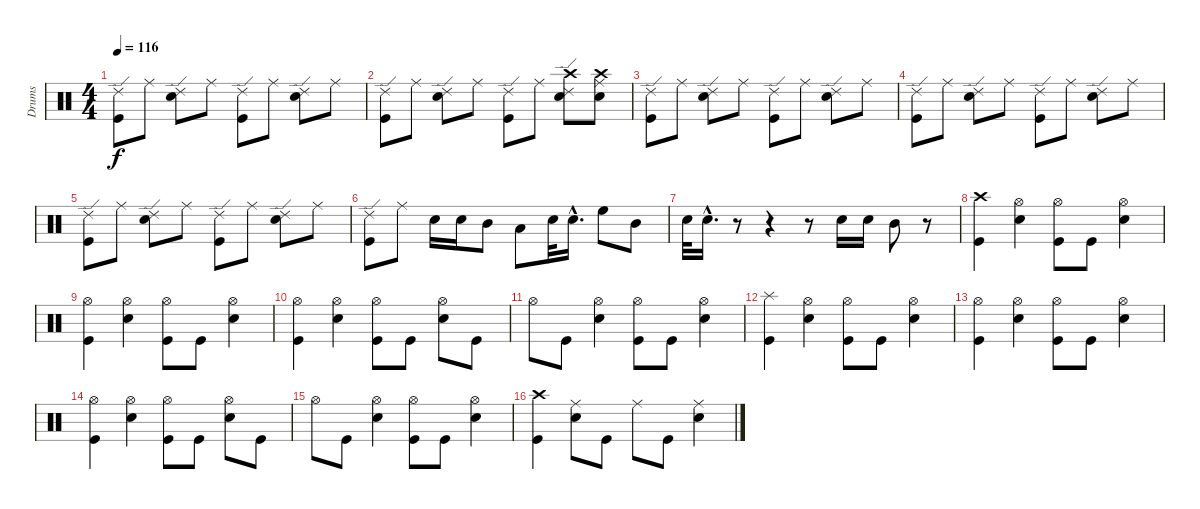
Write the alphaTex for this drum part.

\track ("Drums" "Drums") {instrument percussion}
\staff {score}
\articulation defaults
\ts (4 4)
\tempo 116
\clef neutral
\ks c
("Ride (edge) 2" "Kick (hit)").8{dy f} "Ride (middle)".8 ("Ride (edge) 2" "Electric Snare (hit)").8 "Ride (middle)".8 ("Ride (edge) 2" "Kick (hit)").8 "Ride (middle)".8 ("Ride (edge) 2" "Electric Snare (hit)").8 "Ride (middle)".8 |
("Ride (edge) 2" "Kick (hit)").8 "Ride (middle)".8 ("Ride (edge) 2" "Electric Snare (hit)").8 "Ride (middle)".8 ("Ride (edge) 2" "Kick (hit)").8 "Ride (middle)".8 ("Crash high (hit)" "Ride (edge) 2" "Electric Snare (hit)").8 ("Crash high (hit)" "Ride (middle)" "Electric Snare (hit)").8 |
("Ride (edge) 2" "Kick (hit)").8 "Ride (middle)".8 ("Ride (edge) 2" "Electric Snare (hit)").8 "Ride (middle)".8 ("Ride (edge) 2" "Kick (hit)").8 "Ride (middle)".8 ("Ride (edge) 2" "Electric Snare (hit)").8 "Ride (middle)".8 |
("Ride (edge) 2" "Kick (hit)").8 "Ride (middle)".8 ("Ride (edge) 2" "Electric Snare (hit)").8 "Ride (middle)".8 ("Ride (edge) 2" "Kick (hit)").8 "Ride (middle)".8 ("Ride (edge) 2" "Electric Snare (hit)").8 "Ride (middle)".8 |
("Ride (edge) 2" "Kick (hit)").8 "Ride (middle)".8 ("Ride (edge) 2" "Electric Snare (hit)").8 "Ride (middle)".8 ("Ride (edge) 2" "Kick (hit)").8 "Ride (middle)".8 ("Ride (edge) 2" "Electric Snare (hit)").8 "Ride (middle)".8 |
("Ride (edge) 2" "Kick (hit)").8 "Ride (middle)".8 "Electric Snare (hit)".16 "Electric Snare (hit)".16 "Mid Tom (hit)".8 "Low Tom (hit)".8 "Electric Snare (hit)".32 "Electric Snare (hit)"{hac}.16{d} "High Floor Tom (hit)".8 "Mid Tom (hit)".8 |
"Electric Snare (hit)".32 "Electric Snare (hit)"{hac}.16{d} r.8 r.4 r.8 "Electric Snare (hit)".16 "Electric Snare (hit)".16 "Mid Tom (hit)".8 r.8 |
("Crash high (hit)" "Kick (hit)").4 ("Hi-Hat (open)" "Electric Snare (hit)").4 ("Hi-Hat (open)" "Kick (hit)").8 "Kick (hit)".8 ("Hi-Hat (open)" "Electric Snare (hit)").4 |
("Hi-Hat (open)" "Kick (hit)").4 ("Hi-Hat (open)" "Electric Snare (hit)").4 ("Hi-Hat (open)" "Kick (hit)").8 "Kick (hit)".8 ("Hi-Hat (open)" "Electric Snare (hit)").4 |
("Hi-Hat (open)" "Kick (hit)").4 ("Hi-Hat (open)" "Electric Snare (hit)").4 ("Hi-Hat (open)" "Kick (hit)").8 "Kick (hit)".8 ("Hi-Hat (open)" "Electric Snare (hit)").8 "Kick (hit)".8 |
"Hi-Hat (open)".8 "Kick (hit)".8 ("Hi-Hat (open)" "Electric Snare (hit)").4 ("Hi-Hat (open)" "Kick (hit)").8 "Kick (hit)".8 ("Hi-Hat (open)" "Electric Snare (hit)").4 |
("Splash (hit)" "Kick (hit)").4 ("Hi-Hat (open)" "Electric Snare (hit)").4 ("Hi-Hat (open)" "Kick (hit)").8 "Kick (hit)".8 ("Hi-Hat (open)" "Electric Snare (hit)").4 |
("Hi-Hat (open)" "Kick (hit)").4 ("Hi-Hat (open)" "Electric Snare (hit)").4 ("Hi-Hat (open)" "Kick (hit)").8 "Kick (hit)".8 ("Hi-Hat (open)" "Electric Snare (hit)").4 |
("Hi-Hat (open)" "Kick (hit)").4 ("Hi-Hat (open)" "Electric Snare (hit)").4 ("Hi-Hat (open)" "Kick (hit)").8 "Kick (hit)".8 ("Hi-Hat (open)" "Electric Snare (hit)").8 "Kick (hit)".8 |
"Hi-Hat (open)".8 "Kick (hit)".8 ("Hi-Hat (open)" "Electric Snare (hit)").4 ("Hi-Hat (open)" "Kick (hit)").8 "Kick (hit)".8 ("Hi-Hat (open)" "Electric Snare (hit)").4 |
("Crash high (hit)" "Kick (hit)").4 ("Ride (middle)" "Electric Snare (hit)").8 "Kick (hit)".8 "Ride (middle)".8 "Kick (hit)".8 ("Ride (middle)" "Electric Snare (hit)").4
